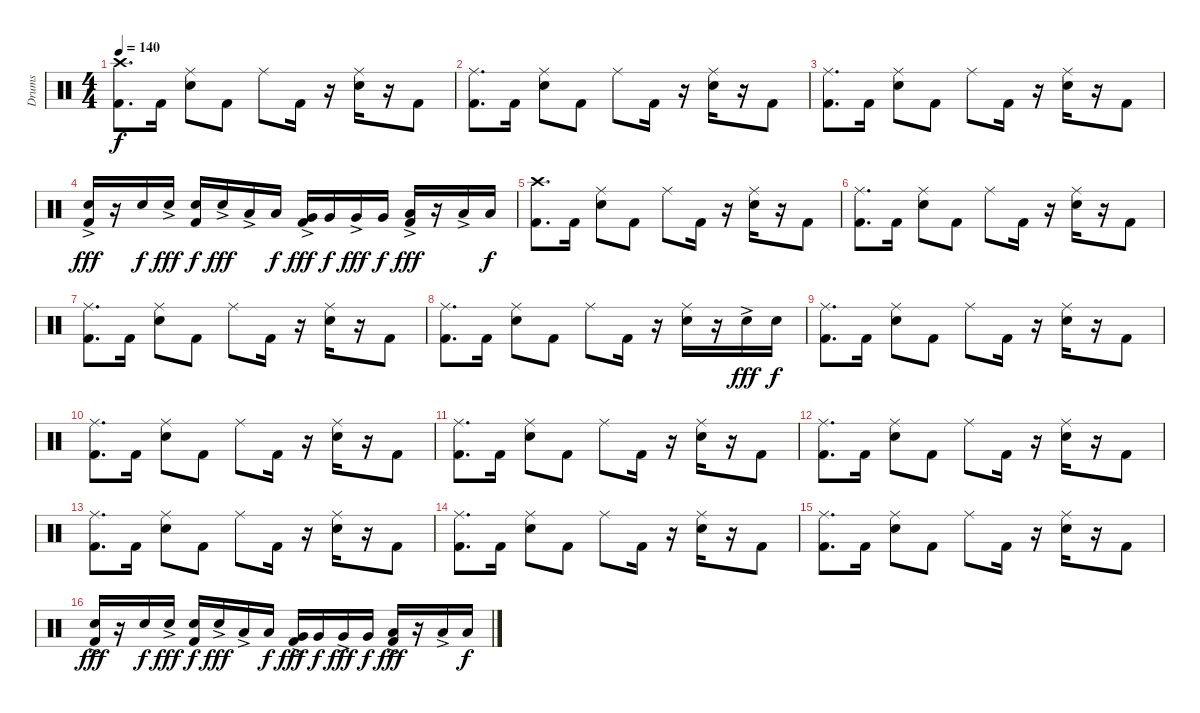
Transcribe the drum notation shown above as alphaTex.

\track ("Drums" "Drums") {instrument percussion}
\staff {score}
\articulation defaults
\ts (4 4)
\tempo 140
\clef neutral
\ks c
("Crash high (hit)" "Kick (hit) 2").8{d dy f} "Kick (hit) 2".16 ("Ride (middle)" "Snare (hit) 2").8 "Kick (hit) 2".8 "Ride (middle)".8 "Kick (hit) 2".16 r.16 ("Ride (middle)" "Snare (hit) 2").16 r.16 "Kick (hit) 2".8 |
("Ride (middle)" "Kick (hit) 2").8{d} "Kick (hit) 2".16 ("Ride (middle)" "Snare (hit) 2").8 "Kick (hit) 2".8 "Ride (middle)".8 "Kick (hit) 2".16 r.16 ("Ride (middle)" "Snare (hit) 2").16 r.16 "Kick (hit) 2".8 |
("Ride (middle)" "Kick (hit) 2").8{d} "Kick (hit) 2".16 ("Ride (middle)" "Snare (hit) 2").8 "Kick (hit) 2".8 "Ride (middle)".8 "Kick (hit) 2".16 r.16 ("Ride (middle)" "Snare (hit) 2").16 r.16 "Kick (hit) 2".8 |
("Snare (hit) 2"{ac} "Kick (hit) 2").16{dy fff} r.16 "Snare (hit) 2".16{dy f} "Snare (hit) 2"{ac}.16{dy fff} ("Snare (hit) 2" "Kick (hit) 2").16{dy f} "Snare (hit) 2"{ac}.16{dy fff} "Low Tom (hit)"{ac}.16 "Low Tom (hit)".16{dy f} ("Very Low Tom (hit)"{ac} "Kick (hit) 2").16{dy fff} "Very Low Tom (hit)".16{dy f} "Very Low Tom (hit)"{ac}.16{dy fff} "Very Low Tom (hit)".16{dy f} ("Low Floor Tom (hit)"{ac} "Kick (hit) 2").16{dy fff} r.16 "Low Tom (hit)"{ac}.16 "Low Tom (hit)".16{dy f} |
("Crash high (hit)" "Kick (hit) 2").8{d} "Kick (hit) 2".16 ("Ride (middle)" "Snare (hit) 2").8 "Kick (hit) 2".8 "Ride (middle)".8 "Kick (hit) 2".16 r.16 ("Ride (middle)" "Snare (hit) 2").16 r.16 "Kick (hit) 2".8 |
("Ride (middle)" "Kick (hit) 2").8{d} "Kick (hit) 2".16 ("Ride (middle)" "Snare (hit) 2").8 "Kick (hit) 2".8 "Ride (middle)".8 "Kick (hit) 2".16 r.16 ("Ride (middle)" "Snare (hit) 2").16 r.16 "Kick (hit) 2".8 |
("Ride (middle)" "Kick (hit) 2").8{d} "Kick (hit) 2".16 ("Ride (middle)" "Snare (hit) 2").8 "Kick (hit) 2".8 "Ride (middle)".8 "Kick (hit) 2".16 r.16 ("Ride (middle)" "Snare (hit) 2").16 r.16 "Kick (hit) 2".8 |
("Ride (middle)" "Kick (hit) 2").8{d} "Kick (hit) 2".16 ("Ride (middle)" "Snare (hit) 2").8 "Kick (hit) 2".8 "Ride (middle)".8 "Kick (hit) 2".16 r.16 ("Ride (middle)" "Snare (hit) 2").16 r.16 "Snare (hit) 2"{ac}.16{dy fff} "Snare (hit) 2".16{dy f} |
("Ride (middle)" "Kick (hit) 2").8{d} "Kick (hit) 2".16 ("Ride (middle)" "Snare (hit) 2").8 "Kick (hit) 2".8 "Ride (middle)".8 "Kick (hit) 2".16 r.16 ("Ride (middle)" "Snare (hit) 2").16 r.16 "Kick (hit) 2".8 |
("Ride (middle)" "Kick (hit) 2").8{d} "Kick (hit) 2".16 ("Ride (middle)" "Snare (hit) 2").8 "Kick (hit) 2".8 "Ride (middle)".8 "Kick (hit) 2".16 r.16 ("Ride (middle)" "Snare (hit) 2").16 r.16 "Kick (hit) 2".8 |
("Ride (middle)" "Kick (hit) 2").8{d} "Kick (hit) 2".16 ("Ride (middle)" "Snare (hit) 2").8 "Kick (hit) 2".8 "Ride (middle)".8 "Kick (hit) 2".16 r.16 ("Ride (middle)" "Snare (hit) 2").16 r.16 "Kick (hit) 2".8 |
("Ride (middle)" "Kick (hit) 2").8{d} "Kick (hit) 2".16 ("Ride (middle)" "Snare (hit) 2").8 "Kick (hit) 2".8 "Ride (middle)".8 "Kick (hit) 2".16 r.16 ("Ride (middle)" "Snare (hit) 2").16 r.16 "Kick (hit) 2".8 |
("Ride (middle)" "Kick (hit) 2").8{d} "Kick (hit) 2".16 ("Ride (middle)" "Snare (hit) 2").8 "Kick (hit) 2".8 "Ride (middle)".8 "Kick (hit) 2".16 r.16 ("Ride (middle)" "Snare (hit) 2").16 r.16 "Kick (hit) 2".8 |
("Ride (middle)" "Kick (hit) 2").8{d} "Kick (hit) 2".16 ("Ride (middle)" "Snare (hit) 2").8 "Kick (hit) 2".8 "Ride (middle)".8 "Kick (hit) 2".16 r.16 ("Ride (middle)" "Snare (hit) 2").16 r.16 "Kick (hit) 2".8 |
("Ride (middle)" "Kick (hit) 2").8{d} "Kick (hit) 2".16 ("Ride (middle)" "Snare (hit) 2").8 "Kick (hit) 2".8 "Ride (middle)".8 "Kick (hit) 2".16 r.16 ("Ride (middle)" "Snare (hit) 2").16 r.16 "Kick (hit) 2".8 |
("Snare (hit) 2"{ac} "Kick (hit) 2").16{dy fff} r.16 "Snare (hit) 2".16{dy f} "Snare (hit) 2"{ac}.16{dy fff} ("Snare (hit) 2" "Kick (hit) 2").16{dy f} "Snare (hit) 2"{ac}.16{dy fff} "Low Tom (hit)"{ac}.16 "Low Tom (hit)".16{dy f} ("Very Low Tom (hit)"{ac} "Kick (hit) 2").16{dy fff} "Very Low Tom (hit)".16{dy f} "Very Low Tom (hit)"{ac}.16{dy fff} "Very Low Tom (hit)".16{dy f} ("Low Floor Tom (hit)"{ac} "Kick (hit) 2").16{dy fff} r.16 "Low Tom (hit)"{ac}.16 "Low Tom (hit)".16{dy f}
